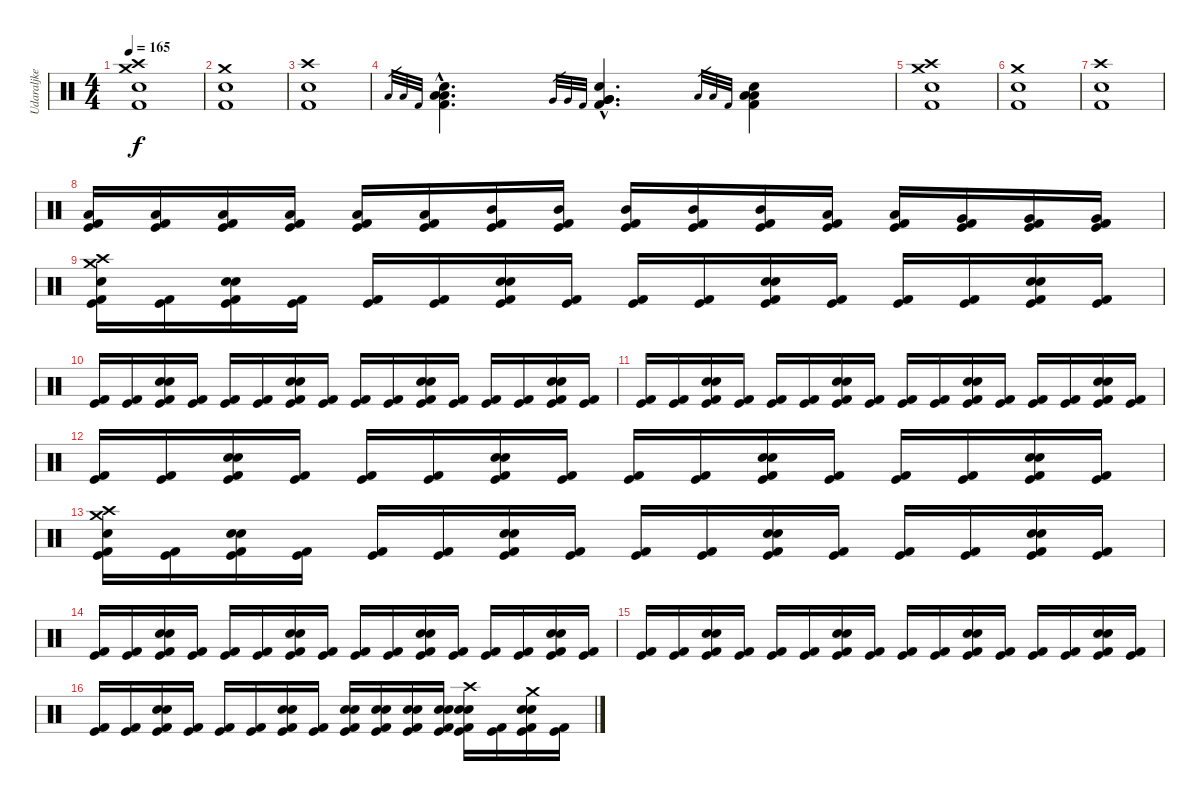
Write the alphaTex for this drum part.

\track ("Udaraljke" "Udaraljke") {instrument percussion}
\staff {score}
\articulation defaults
\ts (4 4)
\tempo 165
\clef neutral
\ks c
("Crash medium (hit)" "Crash high (hit)" "Snare (hit) 2" "Kick (hit) 2").1{dy f} |
("Crash medium (hit)" "Snare (hit) 2" "Kick (hit) 2").1 |
("Crash high (hit)" "Snare (hit) 2" "Kick (hit) 2").1 |
"Low Tom (hit)".32{gr} "Low Tom (hit)".32{gr} "Kick (hit) 2".32{gr} ("Snare (hit) 2"{hac} "Low Tom (hit)"{hac} "Low Tom (hit)"{hac} "Kick (hit) 2"{hac}).4{d} "Very Low Tom (hit)".32{gr} "Very Low Tom (hit)".32{gr} "Kick (hit) 2".32{gr} ("Snare (hit) 2"{hac} "Very Low Tom (hit)"{hac} "Very Low Tom (hit)"{hac} "Kick (hit) 2"{hac}).4{d} "Low Floor Tom (hit)".32{gr} "Low Floor Tom (hit)".32{gr} "Kick (hit) 2".32{gr} ("Snare (hit) 2" "Low Floor Tom (hit)" "Low Floor Tom (hit)" "Kick (hit) 2").4 |
("Crash medium (hit)" "Crash high (hit)" "Snare (hit) 2" "Kick (hit) 2").1 |
("Crash medium (hit)" "Snare (hit) 2" "Kick (hit) 2").1 |
("Crash high (hit)" "Snare (hit) 2" "Kick (hit) 2").1 |
("Low Tom (hit)" "Kick (hit) 2" "Kick (hit)").16 ("Low Tom (hit)" "Kick (hit) 2" "Kick (hit)").16 ("Low Tom (hit)" "Kick (hit) 2" "Kick (hit)").16 ("Low Tom (hit)" "Kick (hit) 2" "Kick (hit)").16 ("Low Tom (hit)" "Kick (hit) 2" "Kick (hit)").16 ("Low Tom (hit)" "Kick (hit) 2" "Kick (hit)").16 ("Mid Tom (hit)" "Kick (hit) 2" "Kick (hit)").16 ("Mid Tom (hit)" "Kick (hit) 2" "Kick (hit)").16 ("Mid Tom (hit)" "Kick (hit) 2" "Kick (hit)").16 ("Mid Tom (hit)" "Kick (hit) 2" "Kick (hit)").16 ("Mid Tom (hit)" "Kick (hit) 2" "Kick (hit)").16 ("Low Tom (hit)" "Kick (hit) 2" "Kick (hit)").16 ("Low Tom (hit)" "Kick (hit) 2" "Kick (hit)").16 ("Very Low Tom (hit)" "Kick (hit) 2" "Kick (hit)").16 ("Very Low Tom (hit)" "Kick (hit) 2" "Kick (hit)").16 ("Very Low Tom (hit)" "Kick (hit) 2" "Kick (hit)").16 |
("Crash high (hit)" "Crash medium (hit)" "Snare (hit) 2" "Kick (hit) 2" "Kick (hit)").16 ("Kick (hit) 2" "Kick (hit)").16 ("Snare (hit) 2" "Snare (hit) 2" "Kick (hit) 2" "Kick (hit)").16 ("Kick (hit) 2" "Kick (hit)").16 ("Kick (hit) 2" "Kick (hit)").16 ("Kick (hit) 2" "Kick (hit)").16 ("Snare (hit) 2" "Snare (hit) 2" "Kick (hit) 2" "Kick (hit)").16 ("Kick (hit) 2" "Kick (hit)").16 ("Kick (hit) 2" "Kick (hit)").16 ("Kick (hit) 2" "Kick (hit)").16 ("Snare (hit) 2" "Snare (hit) 2" "Kick (hit) 2" "Kick (hit)").16 ("Kick (hit) 2" "Kick (hit)").16 ("Kick (hit) 2" "Kick (hit)").16 ("Kick (hit) 2" "Kick (hit)").16 ("Snare (hit) 2" "Snare (hit) 2" "Kick (hit) 2" "Kick (hit)").16 ("Kick (hit) 2" "Kick (hit)").16 |
("Kick (hit) 2" "Kick (hit)").16 ("Kick (hit) 2" "Kick (hit)").16 ("Snare (hit) 2" "Snare (hit) 2" "Kick (hit) 2" "Kick (hit)").16 ("Kick (hit) 2" "Kick (hit)").16 ("Kick (hit) 2" "Kick (hit)").16 ("Kick (hit) 2" "Kick (hit)").16 ("Snare (hit) 2" "Snare (hit) 2" "Kick (hit) 2" "Kick (hit)").16 ("Kick (hit) 2" "Kick (hit)").16 ("Kick (hit) 2" "Kick (hit)").16 ("Kick (hit) 2" "Kick (hit)").16 ("Snare (hit) 2" "Snare (hit) 2" "Kick (hit) 2" "Kick (hit)").16 ("Kick (hit) 2" "Kick (hit)").16 ("Kick (hit) 2" "Kick (hit)").16 ("Kick (hit) 2" "Kick (hit)").16 ("Snare (hit) 2" "Snare (hit) 2" "Kick (hit) 2" "Kick (hit)").16 ("Kick (hit) 2" "Kick (hit)").16 |
("Kick (hit) 2" "Kick (hit)").16 ("Kick (hit) 2" "Kick (hit)").16 ("Snare (hit) 2" "Snare (hit) 2" "Kick (hit) 2" "Kick (hit)").16 ("Kick (hit) 2" "Kick (hit)").16 ("Kick (hit) 2" "Kick (hit)").16 ("Kick (hit) 2" "Kick (hit)").16 ("Snare (hit) 2" "Snare (hit) 2" "Kick (hit) 2" "Kick (hit)").16 ("Kick (hit) 2" "Kick (hit)").16 ("Kick (hit) 2" "Kick (hit)").16 ("Kick (hit) 2" "Kick (hit)").16 ("Snare (hit) 2" "Snare (hit) 2" "Kick (hit) 2" "Kick (hit)").16 ("Kick (hit) 2" "Kick (hit)").16 ("Kick (hit) 2" "Kick (hit)").16 ("Kick (hit) 2" "Kick (hit)").16 ("Snare (hit) 2" "Snare (hit) 2" "Kick (hit) 2" "Kick (hit)").16 ("Kick (hit) 2" "Kick (hit)").16 |
("Kick (hit) 2" "Kick (hit)").16 ("Kick (hit) 2" "Kick (hit)").16 ("Snare (hit) 2" "Snare (hit) 2" "Kick (hit) 2" "Kick (hit)").16 ("Kick (hit) 2" "Kick (hit)").16 ("Kick (hit) 2" "Kick (hit)").16 ("Kick (hit) 2" "Kick (hit)").16 ("Snare (hit) 2" "Snare (hit) 2" "Kick (hit) 2" "Kick (hit)").16 ("Kick (hit) 2" "Kick (hit)").16 ("Kick (hit) 2" "Kick (hit)").16 ("Kick (hit) 2" "Kick (hit)").16 ("Snare (hit) 2" "Snare (hit) 2" "Kick (hit) 2" "Kick (hit)").16 ("Kick (hit) 2" "Kick (hit)").16 ("Kick (hit) 2" "Kick (hit)").16 ("Kick (hit) 2" "Kick (hit)").16 ("Snare (hit) 2" "Snare (hit) 2" "Kick (hit) 2" "Kick (hit)").16 ("Kick (hit) 2" "Kick (hit)").16 |
("Crash medium (hit)" "Crash high (hit)" "Snare (hit) 2" "Kick (hit) 2" "Kick (hit)").16 ("Kick (hit) 2" "Kick (hit)").16 ("Snare (hit) 2" "Snare (hit) 2" "Kick (hit) 2" "Kick (hit)").16 ("Kick (hit) 2" "Kick (hit)").16 ("Kick (hit) 2" "Kick (hit)").16 ("Kick (hit) 2" "Kick (hit)").16 ("Snare (hit) 2" "Snare (hit) 2" "Kick (hit) 2" "Kick (hit)").16 ("Kick (hit) 2" "Kick (hit)").16 ("Kick (hit) 2" "Kick (hit)").16 ("Kick (hit) 2" "Kick (hit)").16 ("Snare (hit) 2" "Snare (hit) 2" "Kick (hit) 2" "Kick (hit)").16 ("Kick (hit) 2" "Kick (hit)").16 ("Kick (hit) 2" "Kick (hit)").16 ("Kick (hit) 2" "Kick (hit)").16 ("Snare (hit) 2" "Snare (hit) 2" "Kick (hit) 2" "Kick (hit)").16 ("Kick (hit) 2" "Kick (hit)").16 |
("Kick (hit) 2" "Kick (hit)").16 ("Kick (hit) 2" "Kick (hit)").16 ("Snare (hit) 2" "Snare (hit) 2" "Kick (hit) 2" "Kick (hit)").16 ("Kick (hit) 2" "Kick (hit)").16 ("Kick (hit) 2" "Kick (hit)").16 ("Kick (hit) 2" "Kick (hit)").16 ("Snare (hit) 2" "Snare (hit) 2" "Kick (hit) 2" "Kick (hit)").16 ("Kick (hit) 2" "Kick (hit)").16 ("Kick (hit) 2" "Kick (hit)").16 ("Kick (hit) 2" "Kick (hit)").16 ("Snare (hit) 2" "Snare (hit) 2" "Kick (hit) 2" "Kick (hit)").16 ("Kick (hit) 2" "Kick (hit)").16 ("Kick (hit) 2" "Kick (hit)").16 ("Kick (hit) 2" "Kick (hit)").16 ("Snare (hit) 2" "Snare (hit) 2" "Kick (hit) 2" "Kick (hit)").16 ("Kick (hit) 2" "Kick (hit)").16 |
("Kick (hit) 2" "Kick (hit)").16 ("Kick (hit) 2" "Kick (hit)").16 ("Snare (hit) 2" "Snare (hit) 2" "Kick (hit) 2" "Kick (hit)").16 ("Kick (hit) 2" "Kick (hit)").16 ("Kick (hit) 2" "Kick (hit)").16 ("Kick (hit) 2" "Kick (hit)").16 ("Snare (hit) 2" "Snare (hit) 2" "Kick (hit) 2" "Kick (hit)").16 ("Kick (hit) 2" "Kick (hit)").16 ("Kick (hit) 2" "Kick (hit)").16 ("Kick (hit) 2" "Kick (hit)").16 ("Snare (hit) 2" "Snare (hit) 2" "Kick (hit) 2" "Kick (hit)").16 ("Kick (hit) 2" "Kick (hit)").16 ("Kick (hit) 2" "Kick (hit)").16 ("Kick (hit) 2" "Kick (hit)").16 ("Snare (hit) 2" "Snare (hit) 2" "Kick (hit) 2" "Kick (hit)").16 ("Kick (hit) 2" "Kick (hit)").16 |
("Kick (hit) 2" "Kick (hit)").16 ("Kick (hit) 2" "Kick (hit)").16 ("Snare (hit) 2" "Snare (hit) 2" "Kick (hit) 2" "Kick (hit)").16 ("Kick (hit) 2" "Kick (hit)").16 ("Kick (hit) 2" "Kick (hit)").16 ("Kick (hit) 2" "Kick (hit)").16 ("Snare (hit) 2" "Snare (hit) 2" "Kick (hit) 2" "Kick (hit)").16 ("Kick (hit) 2" "Kick (hit)").16 ("Snare (hit) 2" "Snare (hit) 2" "Kick (hit) 2" "Kick (hit)").16 ("Snare (hit) 2" "Snare (hit) 2" "Kick (hit) 2" "Kick (hit)").16 ("Snare (hit) 2" "Snare (hit) 2" "Kick (hit) 2" "Kick (hit)").16 ("Snare (hit) 2" "Snare (hit) 2" "Kick (hit) 2" "Kick (hit)").16 ("Crash high (hit)" "Snare (hit) 2" "Snare (hit) 2" "Kick (hit) 2" "Kick (hit)").16 ("Kick (hit) 2" "Kick (hit)").16 ("Crash medium (hit)" "Snare (hit) 2" "Snare (hit) 2" "Kick (hit) 2" "Kick (hit)").16 ("Kick (hit) 2" "Kick (hit)").16
